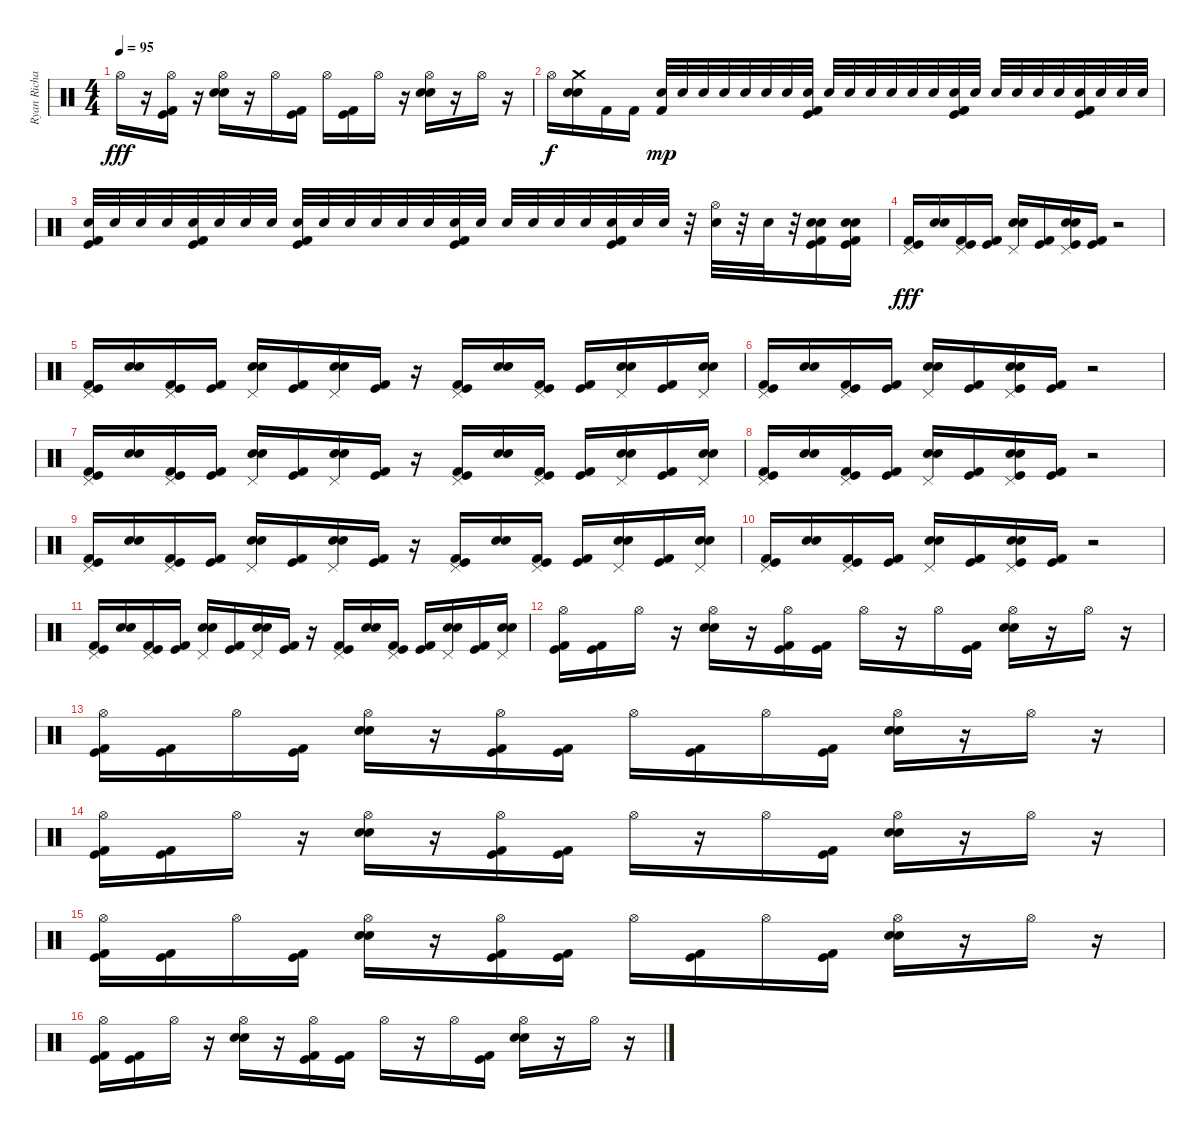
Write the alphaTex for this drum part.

\track ("Ryan Richards" "Ryan Richa") {instrument percussion}
\staff {score}
\articulation defaults
\ts (4 4)
\tempo 95
\clef neutral
\ks c "Hi-Hat (open)".16{dy fff}
r.16 ("Kick (hit)" "Hi-Hat (open)" "Kick (hit) 2").16 r.16 ("Hi-Hat (open)" "Electric Snare (hit)" "Snare (hit) 2").16 r.16 "Hi-Hat (open)".16 ("Kick (hit)" "Kick (hit) 2").16 "Hi-Hat (open)".16 ("Kick (hit)" "Kick (hit) 2").16 "Hi-Hat (open)".16 r.16 ("Hi-Hat (open)" "Electric Snare (hit)" "Snare (hit) 2").16 r.16 "Hi-Hat (open)".16 r.16 |
"Hi-Hat (open)".16{dy f} ("Crash medium (hit)" "Electric Snare (hit)" "Snare (hit) 2").16 "Kick (hit) 2".16 "Kick (hit) 2".16 ("Electric Snare (hit)" "Kick (hit) 2").32{dy mp} "Snare (hit) 2".32 "Electric Snare (hit)".32 "Snare (hit) 2".32 "Electric Snare (hit)".32 "Snare (hit) 2".32 "Electric Snare (hit)".32 ("Kick (hit)" "Snare (hit) 2" "Kick (hit) 2").32 "Electric Snare (hit)".32 "Snare (hit) 2".32 "Electric Snare (hit)".32 "Snare (hit) 2".32 "Electric Snare (hit)".32 "Snare (hit) 2".32 ("Kick (hit)" "Electric Snare (hit)" "Kick (hit) 2").32 "Snare (hit) 2".32 "Electric Snare (hit)".32 "Snare (hit) 2".32 "Electric Snare (hit)".32 "Snare (hit) 2".32 ("Kick (hit)" "Electric Snare (hit)" "Kick (hit) 2").32 "Snare (hit) 2".32 "Electric Snare (hit)".32 "Snare (hit) 2".32 |
("Kick (hit)" "Electric Snare (hit)" "Kick (hit) 2").32 "Snare (hit) 2".32 "Electric Snare (hit)".32 "Snare (hit) 2".32 ("Kick (hit)" "Electric Snare (hit)" "Kick (hit) 2").32 "Snare (hit) 2".32 "Electric Snare (hit)".32 "Snare (hit) 2".32 ("Kick (hit)" "Electric Snare (hit)" "Kick (hit) 2").32 "Snare (hit) 2".32 "Electric Snare (hit)".32 "Snare (hit) 2".32 "Electric Snare (hit)".32 "Snare (hit) 2".32 ("Kick (hit)" "Electric Snare (hit)" "Kick (hit) 2").32 "Snare (hit) 2".32 "Electric Snare (hit)".32 "Snare (hit) 2".32 "Electric Snare (hit)".32 "Snare (hit) 2".32 ("Kick (hit)" "Electric Snare (hit)" "Kick (hit) 2").32 "Snare (hit) 2".32 "Electric Snare (hit)".32 r.32 ("Hi-Hat (open)" "Snare (hit) 2").32 r.32 "Electric Snare (hit)".32 r.32 ("Kick (hit)" "Electric Snare (hit)" "Snare (hit) 2" "Kick (hit) 2").16 ("Kick (hit)" "Electric Snare (hit)" "Snare (hit) 2" "Kick (hit) 2").16 |
("Kick (hit)" "Pedal Hi-Hat (hit)" "Kick (hit) 2").16{dy fff} ("Electric Snare (hit)" "Snare (hit) 2").16 ("Kick (hit)" "Pedal Hi-Hat (hit)" "Kick (hit) 2").16 ("Kick (hit)" "Kick (hit) 2").16 ("Pedal Hi-Hat (hit)" "Electric Snare (hit)" "Snare (hit) 2").16 ("Kick (hit)" "Kick (hit) 2").16 ("Kick (hit)" "Pedal Hi-Hat (hit)" "Electric Snare (hit)" "Snare (hit) 2").16 ("Kick (hit)" "Kick (hit) 2").16 r.2 |
("Kick (hit)" "Pedal Hi-Hat (hit)" "Kick (hit) 2").16 ("Electric Snare (hit)" "Snare (hit) 2").16 ("Kick (hit)" "Pedal Hi-Hat (hit)" "Kick (hit) 2").16 ("Kick (hit)" "Kick (hit) 2").16 ("Pedal Hi-Hat (hit)" "Electric Snare (hit)" "Snare (hit) 2").16 ("Kick (hit)" "Kick (hit) 2").16 ("Pedal Hi-Hat (hit)" "Electric Snare (hit)" "Snare (hit) 2").16 ("Kick (hit)" "Kick (hit) 2").16 r.16 ("Kick (hit)" "Pedal Hi-Hat (hit)" "Kick (hit) 2").16 ("Electric Snare (hit)" "Snare (hit) 2").16 ("Kick (hit)" "Pedal Hi-Hat (hit)" "Kick (hit) 2").16 ("Kick (hit)" "Kick (hit) 2").16 ("Pedal Hi-Hat (hit)" "Electric Snare (hit)" "Snare (hit) 2").16 ("Kick (hit)" "Kick (hit) 2").16 ("Pedal Hi-Hat (hit)" "Electric Snare (hit)" "Snare (hit) 2").16 |
("Kick (hit)" "Pedal Hi-Hat (hit)" "Kick (hit) 2").16 ("Electric Snare (hit)" "Snare (hit) 2").16 ("Kick (hit)" "Pedal Hi-Hat (hit)" "Kick (hit) 2").16 ("Kick (hit)" "Kick (hit) 2").16 ("Pedal Hi-Hat (hit)" "Electric Snare (hit)" "Snare (hit) 2").16 ("Kick (hit)" "Kick (hit) 2").16 ("Kick (hit)" "Pedal Hi-Hat (hit)" "Electric Snare (hit)" "Snare (hit) 2").16 ("Kick (hit)" "Kick (hit) 2").16 r.2 |
("Kick (hit)" "Pedal Hi-Hat (hit)" "Kick (hit) 2").16 ("Electric Snare (hit)" "Snare (hit) 2").16 ("Kick (hit)" "Pedal Hi-Hat (hit)" "Kick (hit) 2").16 ("Kick (hit)" "Kick (hit) 2").16 ("Pedal Hi-Hat (hit)" "Electric Snare (hit)" "Snare (hit) 2").16 ("Kick (hit)" "Kick (hit) 2").16 ("Pedal Hi-Hat (hit)" "Electric Snare (hit)" "Snare (hit) 2").16 ("Kick (hit)" "Kick (hit) 2").16 r.16 ("Kick (hit)" "Pedal Hi-Hat (hit)" "Kick (hit) 2").16 ("Electric Snare (hit)" "Snare (hit) 2").16 ("Kick (hit)" "Pedal Hi-Hat (hit)" "Kick (hit) 2").16 ("Kick (hit)" "Kick (hit) 2").16 ("Pedal Hi-Hat (hit)" "Electric Snare (hit)" "Snare (hit) 2").16 ("Kick (hit)" "Kick (hit) 2").16 ("Pedal Hi-Hat (hit)" "Electric Snare (hit)" "Snare (hit) 2").16 |
("Kick (hit)" "Pedal Hi-Hat (hit)" "Kick (hit) 2").16 ("Electric Snare (hit)" "Snare (hit) 2").16 ("Kick (hit)" "Pedal Hi-Hat (hit)" "Kick (hit) 2").16 ("Kick (hit)" "Kick (hit) 2").16 ("Pedal Hi-Hat (hit)" "Electric Snare (hit)" "Snare (hit) 2").16 ("Kick (hit)" "Kick (hit) 2").16 ("Kick (hit)" "Pedal Hi-Hat (hit)" "Electric Snare (hit)" "Snare (hit) 2").16 ("Kick (hit)" "Kick (hit) 2").16 r.2 |
("Kick (hit)" "Pedal Hi-Hat (hit)" "Kick (hit) 2").16 ("Electric Snare (hit)" "Snare (hit) 2").16 ("Kick (hit)" "Pedal Hi-Hat (hit)" "Kick (hit) 2").16 ("Kick (hit)" "Kick (hit) 2").16 ("Pedal Hi-Hat (hit)" "Electric Snare (hit)" "Snare (hit) 2").16 ("Kick (hit)" "Kick (hit) 2").16 ("Pedal Hi-Hat (hit)" "Electric Snare (hit)" "Snare (hit) 2").16 ("Kick (hit)" "Kick (hit) 2").16 r.16 ("Kick (hit)" "Pedal Hi-Hat (hit)" "Kick (hit) 2").16 ("Electric Snare (hit)" "Snare (hit) 2").16 ("Kick (hit)" "Pedal Hi-Hat (hit)" "Kick (hit) 2").16 ("Kick (hit)" "Kick (hit) 2").16 ("Pedal Hi-Hat (hit)" "Electric Snare (hit)" "Snare (hit) 2").16 ("Kick (hit)" "Kick (hit) 2").16 ("Pedal Hi-Hat (hit)" "Electric Snare (hit)" "Snare (hit) 2").16 |
("Kick (hit)" "Pedal Hi-Hat (hit)" "Kick (hit) 2").16 ("Electric Snare (hit)" "Snare (hit) 2").16 ("Kick (hit)" "Pedal Hi-Hat (hit)" "Kick (hit) 2").16 ("Kick (hit)" "Kick (hit) 2").16 ("Pedal Hi-Hat (hit)" "Electric Snare (hit)" "Snare (hit) 2").16 ("Kick (hit)" "Kick (hit) 2").16 ("Kick (hit)" "Pedal Hi-Hat (hit)" "Electric Snare (hit)" "Snare (hit) 2").16 ("Kick (hit)" "Kick (hit) 2").16 r.2 |
("Kick (hit)" "Pedal Hi-Hat (hit)" "Kick (hit) 2").16 ("Electric Snare (hit)" "Snare (hit) 2").16 ("Kick (hit)" "Pedal Hi-Hat (hit)" "Kick (hit) 2").16 ("Kick (hit)" "Kick (hit) 2").16 ("Pedal Hi-Hat (hit)" "Electric Snare (hit)" "Snare (hit) 2").16 ("Kick (hit)" "Kick (hit) 2").16 ("Pedal Hi-Hat (hit)" "Electric Snare (hit)" "Snare (hit) 2").16 ("Kick (hit)" "Kick (hit) 2").16 r.16 ("Kick (hit)" "Pedal Hi-Hat (hit)" "Kick (hit) 2").16 ("Electric Snare (hit)" "Snare (hit) 2").16 ("Kick (hit)" "Pedal Hi-Hat (hit)" "Kick (hit) 2").16 ("Kick (hit)" "Kick (hit) 2").16 ("Pedal Hi-Hat (hit)" "Electric Snare (hit)" "Snare (hit) 2").16 ("Kick (hit)" "Kick (hit) 2").16 ("Pedal Hi-Hat (hit)" "Electric Snare (hit)" "Snare (hit) 2").16 |
("Kick (hit)" "Hi-Hat (open)" "Kick (hit) 2").16 ("Kick (hit)" "Kick (hit) 2").16 "Hi-Hat (open)".16 r.16 ("Hi-Hat (open)" "Electric Snare (hit)" "Snare (hit) 2").16 r.16 ("Kick (hit)" "Hi-Hat (open)" "Kick (hit) 2").16 ("Kick (hit)" "Kick (hit) 2").16 "Hi-Hat (open)".16 r.16 "Hi-Hat (open)".16 ("Kick (hit)" "Kick (hit) 2").16 ("Hi-Hat (open)" "Electric Snare (hit)" "Snare (hit) 2").16 r.16 "Hi-Hat (open)".16 r.16 |
("Kick (hit)" "Hi-Hat (open)" "Kick (hit) 2").16 ("Kick (hit)" "Kick (hit) 2").16 "Hi-Hat (open)".16 ("Kick (hit)" "Kick (hit) 2").16 ("Hi-Hat (open)" "Electric Snare (hit)" "Snare (hit) 2").16 r.16 ("Kick (hit)" "Hi-Hat (open)" "Kick (hit) 2").16 ("Kick (hit)" "Kick (hit) 2").16 "Hi-Hat (open)".16 ("Kick (hit)" "Kick (hit) 2").16 "Hi-Hat (open)".16 ("Kick (hit)" "Kick (hit) 2").16 ("Hi-Hat (open)" "Electric Snare (hit)" "Snare (hit) 2").16 r.16 "Hi-Hat (open)".16 r.16 |
("Kick (hit)" "Hi-Hat (open)" "Kick (hit) 2").16 ("Kick (hit)" "Kick (hit) 2").16 "Hi-Hat (open)".16 r.16 ("Hi-Hat (open)" "Electric Snare (hit)" "Snare (hit) 2").16 r.16 ("Kick (hit)" "Hi-Hat (open)" "Kick (hit) 2").16 ("Kick (hit)" "Kick (hit) 2").16 "Hi-Hat (open)".16 r.16 "Hi-Hat (open)".16 ("Kick (hit)" "Kick (hit) 2").16 ("Hi-Hat (open)" "Electric Snare (hit)" "Snare (hit) 2").16 r.16 "Hi-Hat (open)".16 r.16 |
("Kick (hit)" "Hi-Hat (open)" "Kick (hit) 2").16 ("Kick (hit)" "Kick (hit) 2").16 "Hi-Hat (open)".16 ("Kick (hit)" "Kick (hit) 2").16 ("Hi-Hat (open)" "Electric Snare (hit)" "Snare (hit) 2").16 r.16 ("Kick (hit)" "Hi-Hat (open)" "Kick (hit) 2").16 ("Kick (hit)" "Kick (hit) 2").16 "Hi-Hat (open)".16 ("Kick (hit)" "Kick (hit) 2").16 "Hi-Hat (open)".16 ("Kick (hit)" "Kick (hit) 2").16 ("Hi-Hat (open)" "Electric Snare (hit)" "Snare (hit) 2").16 r.16 "Hi-Hat (open)".16 r.16 |
("Kick (hit)" "Hi-Hat (open)" "Kick (hit) 2").16 ("Kick (hit)" "Kick (hit) 2").16 "Hi-Hat (open)".16 r.16 ("Hi-Hat (open)" "Electric Snare (hit)" "Snare (hit) 2").16 r.16 ("Kick (hit)" "Hi-Hat (open)" "Kick (hit) 2").16 ("Kick (hit)" "Kick (hit) 2").16 "Hi-Hat (open)".16 r.16 "Hi-Hat (open)".16 ("Kick (hit)" "Kick (hit) 2").16 ("Hi-Hat (open)" "Electric Snare (hit)" "Snare (hit) 2").16 r.16 "Hi-Hat (open)".16 r.16
